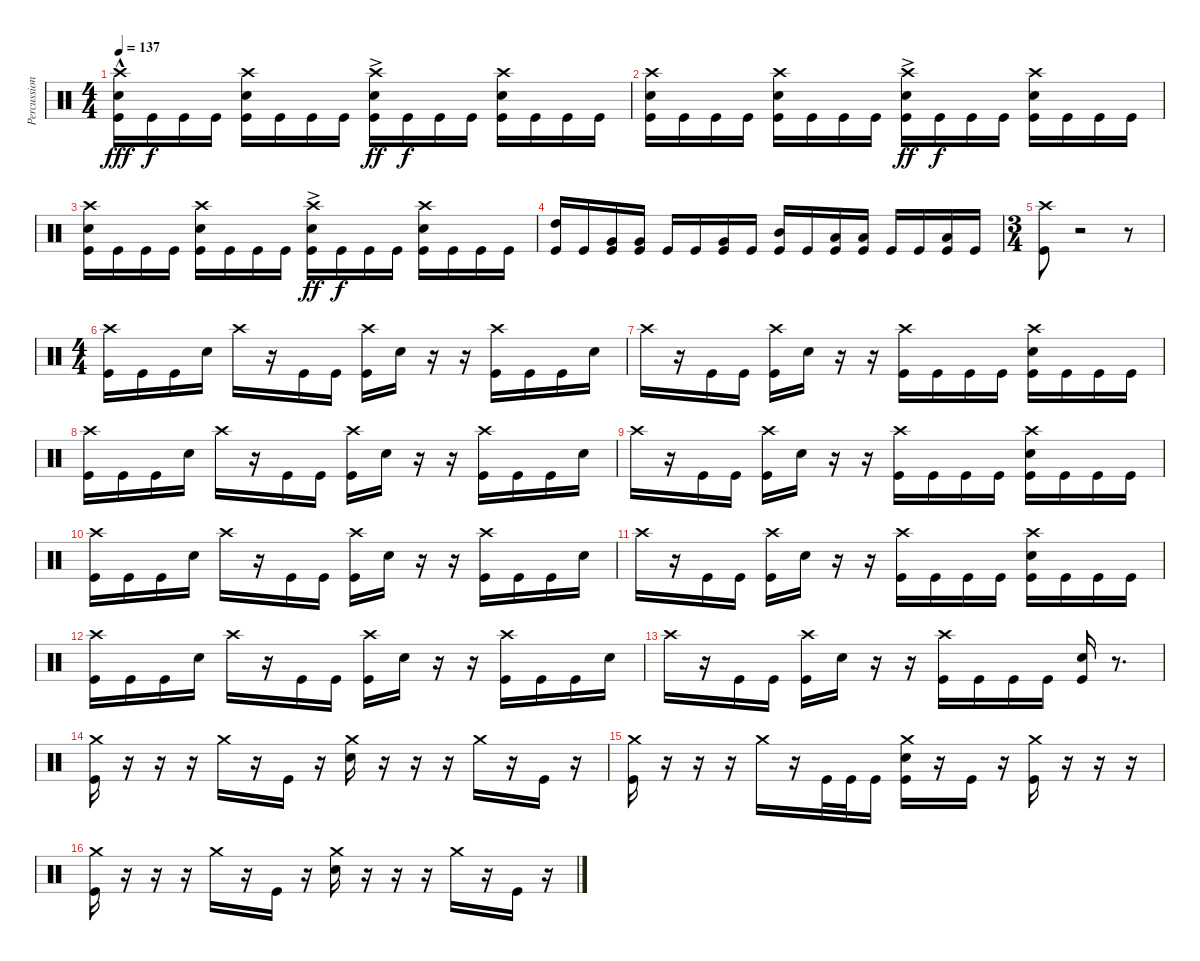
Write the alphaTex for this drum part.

\track ("Percussion" "Percussion") {instrument percussion}
\staff {score}
\articulation defaults
\ts (4 4)
\tempo 137
\clef neutral
\ks c
("Crash high (hit)"{hac} "Snare (hit) 2" "Kick (hit)").16{dy fff} "Kick (hit)".16{dy f} "Kick (hit)".16 "Kick (hit)".16 ("Crash high (hit)" "Snare (hit) 2" "Kick (hit)").16 "Kick (hit)".16 "Kick (hit)".16 "Kick (hit)".16 ("Crash high (hit)" "Snare (hit) 2"{ac} "Kick (hit)").16{dy ff} "Kick (hit)".16{dy f} "Kick (hit)".16 "Kick (hit)".16 ("Crash high (hit)" "Snare (hit) 2" "Kick (hit)").16 "Kick (hit)".16 "Kick (hit)".16 "Kick (hit)".16 |
("Crash high (hit)" "Snare (hit) 2" "Kick (hit)").16 "Kick (hit)".16 "Kick (hit)".16 "Kick (hit)".16 ("Crash high (hit)" "Snare (hit) 2" "Kick (hit)").16 "Kick (hit)".16 "Kick (hit)".16 "Kick (hit)".16 ("Crash high (hit)" "Snare (hit) 2"{ac} "Kick (hit)").16{dy ff} "Kick (hit)".16{dy f} "Kick (hit)".16 "Kick (hit)".16 ("Crash high (hit)" "Snare (hit) 2" "Kick (hit)").16 "Kick (hit)".16 "Kick (hit)".16 "Kick (hit)".16 |
("Crash high (hit)" "Snare (hit) 2" "Kick (hit)").16 "Kick (hit)".16 "Kick (hit)".16 "Kick (hit)".16 ("Crash high (hit)" "Snare (hit) 2" "Kick (hit)").16 "Kick (hit)".16 "Kick (hit)".16 "Kick (hit)".16 ("Crash high (hit)" "Snare (hit) 2"{ac} "Kick (hit)").16{dy ff} "Kick (hit)".16{dy f} "Kick (hit)".16 "Kick (hit)".16 ("Crash high (hit)" "Snare (hit) 2" "Kick (hit)").16 "Kick (hit)".16 "Kick (hit)".16 "Kick (hit)".16 |
("High Tom (hit)" "Kick (hit)").16 "Kick (hit)".16 ("Very Low Tom (hit)" "Kick (hit)").16 ("Very Low Tom (hit)" "Kick (hit)").16 "Kick (hit)".16 "Kick (hit)".16 ("Very Low Tom (hit)" "Kick (hit)").16 "Kick (hit)".16 ("Mid Tom (hit)" "Kick (hit)").16 "Kick (hit)".16 ("Low Floor Tom (hit)" "Kick (hit)").16 ("Low Floor Tom (hit)" "Kick (hit)").16 "Kick (hit)".16 "Kick (hit)".16 ("Low Floor Tom (hit)" "Kick (hit)").16 "Kick (hit)".16 |
\ts (3 4)
("Crash high (hit)" "Kick (hit)").8 r.2 r.8 |
\ts (4 4)
("Crash high (hit)" "Kick (hit)").16 "Kick (hit)".16 "Kick (hit)".16 "Snare (hit) 2".16 "Crash high (hit)".16 r.16 "Kick (hit)".16 "Kick (hit)".16 ("Crash high (hit)" "Kick (hit)").16 "Snare (hit) 2".16 r.16 r.16 ("Crash high (hit)" "Kick (hit)").16 "Kick (hit)".16 "Kick (hit)".16 "Snare (hit) 2".16 |
"Crash high (hit)".16 r.16 "Kick (hit)".16 "Kick (hit)".16 ("Crash high (hit)" "Kick (hit)").16 "Snare (hit) 2".16 r.16 r.16 ("Crash high (hit)" "Kick (hit)").16 "Kick (hit)".16 "Kick (hit)".16 "Kick (hit)".16 ("Crash high (hit)" "Snare (hit) 2" "Kick (hit)").16 "Kick (hit)".16 "Kick (hit)".16 "Kick (hit)".16 |
("Crash high (hit)" "Kick (hit)").16 "Kick (hit)".16 "Kick (hit)".16 "Snare (hit) 2".16 "Crash high (hit)".16 r.16 "Kick (hit)".16 "Kick (hit)".16 ("Crash high (hit)" "Kick (hit)").16 "Snare (hit) 2".16 r.16 r.16 ("Crash high (hit)" "Kick (hit)").16 "Kick (hit)".16 "Kick (hit)".16 "Snare (hit) 2".16 |
"Crash high (hit)".16 r.16 "Kick (hit)".16 "Kick (hit)".16 ("Crash high (hit)" "Kick (hit)").16 "Snare (hit) 2".16 r.16 r.16 ("Crash high (hit)" "Kick (hit)").16 "Kick (hit)".16 "Kick (hit)".16 "Kick (hit)".16 ("Crash high (hit)" "Snare (hit) 2" "Kick (hit)").16 "Kick (hit)".16 "Kick (hit)".16 "Kick (hit)".16 |
("Crash high (hit)" "Kick (hit)").16 "Kick (hit)".16 "Kick (hit)".16 "Snare (hit) 2".16 "Crash high (hit)".16 r.16 "Kick (hit)".16 "Kick (hit)".16 ("Crash high (hit)" "Kick (hit)").16 "Snare (hit) 2".16 r.16 r.16 ("Crash high (hit)" "Kick (hit)").16 "Kick (hit)".16 "Kick (hit)".16 "Snare (hit) 2".16 |
"Crash high (hit)".16 r.16 "Kick (hit)".16 "Kick (hit)".16 ("Crash high (hit)" "Kick (hit)").16 "Snare (hit) 2".16 r.16 r.16 ("Crash high (hit)" "Kick (hit)").16 "Kick (hit)".16 "Kick (hit)".16 "Kick (hit)".16 ("Crash high (hit)" "Snare (hit) 2" "Kick (hit)").16 "Kick (hit)".16 "Kick (hit)".16 "Kick (hit)".16 |
("Crash high (hit)" "Kick (hit)").16 "Kick (hit)".16 "Kick (hit)".16 "Snare (hit) 2".16 "Crash high (hit)".16 r.16 "Kick (hit)".16 "Kick (hit)".16 ("Crash high (hit)" "Kick (hit)").16 "Snare (hit) 2".16 r.16 r.16 ("Crash high (hit)" "Kick (hit)").16 "Kick (hit)".16 "Kick (hit)".16 "Snare (hit) 2".16 |
"Crash high (hit)".16 r.16 "Kick (hit)".16 "Kick (hit)".16 ("Crash high (hit)" "Kick (hit)").16 "Snare (hit) 2".16 r.16 r.16 ("Crash high (hit)" "Kick (hit)").16 "Kick (hit)".16 "Kick (hit)".16 "Kick (hit)".16 ("Snare (hit) 2" "Kick (hit)").16 r.8{d} |
("Crash medium (hit)" "Kick (hit)").16 r.16 r.16 r.16 "Crash medium (hit)".16 r.16 "Kick (hit)".16 r.16 ("Crash medium (hit)" "Snare (hit) 2").16 r.16 r.16 r.16 "Crash medium (hit)".16 r.16 "Kick (hit)".16 r.16 |
("Crash medium (hit)" "Kick (hit)").16 r.16 r.16 r.16 "Crash medium (hit)".16 r.16 "Kick (hit)".32 "Kick (hit)".32 "Kick (hit)".16 ("Crash medium (hit)" "Snare (hit) 2" "Kick (hit)").16 r.16 "Kick (hit)".16 r.16 ("Crash medium (hit)" "Kick (hit)").16 r.16 r.16 r.16 |
("Crash medium (hit)" "Kick (hit)").16 r.16 r.16 r.16 "Crash medium (hit)".16 r.16 "Kick (hit)".16 r.16 ("Crash medium (hit)" "Snare (hit) 2").16 r.16 r.16 r.16 "Crash medium (hit)".16 r.16 "Kick (hit)".16 r.16
